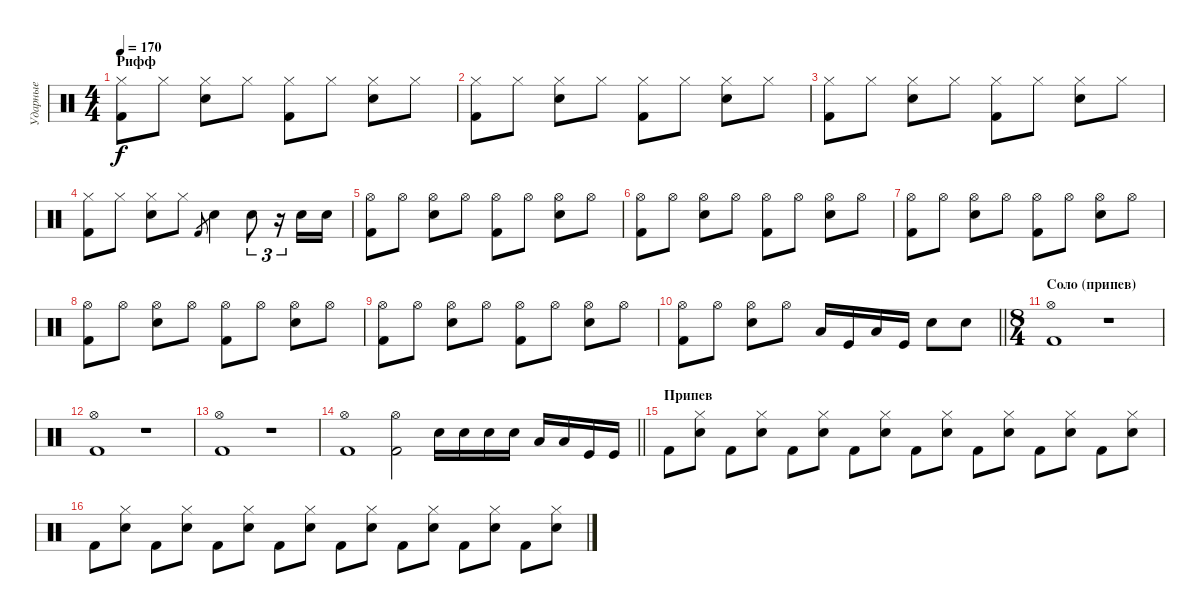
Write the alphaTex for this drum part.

\track ("Ударные" "Ударные") {instrument percussion}
\staff {score}
\articulation defaults
\ts (4 4)
\section ("" "Рифф")
\tempo 170
\clef neutral
\ks c
("Hi-Hat (closed)" "Kick (hit) 2").8{dy f} "Hi-Hat (closed)".8 ("Hi-Hat (closed)" "Electric Snare (hit)").8 "Hi-Hat (closed)".8 ("Hi-Hat (closed)" "Kick (hit) 2").8 "Hi-Hat (closed)".8 ("Hi-Hat (closed)" "Electric Snare (hit)").8 "Hi-Hat (closed)".8 |
("Hi-Hat (closed)" "Kick (hit) 2").8 "Hi-Hat (closed)".8 ("Hi-Hat (closed)" "Electric Snare (hit)").8 "Hi-Hat (closed)".8 ("Hi-Hat (closed)" "Kick (hit) 2").8 "Hi-Hat (closed)".8 ("Hi-Hat (closed)" "Electric Snare (hit)").8 "Hi-Hat (closed)".8 |
("Hi-Hat (closed)" "Kick (hit) 2").8 "Hi-Hat (closed)".8 ("Hi-Hat (closed)" "Electric Snare (hit)").8 "Hi-Hat (closed)".8 ("Hi-Hat (closed)" "Kick (hit) 2").8 "Hi-Hat (closed)".8 ("Hi-Hat (closed)" "Electric Snare (hit)").8 "Hi-Hat (closed)".8 |
("Hi-Hat (closed)" "Kick (hit) 2").8 "Hi-Hat (closed)".8 ("Hi-Hat (closed)" "Electric Snare (hit)").8 "Hi-Hat (closed)".8 "Kick (hit) 2".8{gr} "Electric Snare (hit)".4 "Electric Snare (hit)".8{tu (3 2)} r.16{tu (3 2)} "Electric Snare (hit)".16 "Electric Snare (hit)".16 |
("Hi-Hat (open)" "Kick (hit) 2").8 "Hi-Hat (open)".8 ("Hi-Hat (open)" "Electric Snare (hit)").8 "Hi-Hat (open)".8 ("Hi-Hat (open)" "Kick (hit) 2").8 "Hi-Hat (open)".8 ("Hi-Hat (open)" "Electric Snare (hit)").8 "Hi-Hat (open)".8 |
("Hi-Hat (open)" "Kick (hit) 2").8 "Hi-Hat (open)".8 ("Hi-Hat (open)" "Electric Snare (hit)").8 "Hi-Hat (open)".8 ("Hi-Hat (open)" "Kick (hit) 2").8 "Hi-Hat (open)".8 ("Hi-Hat (open)" "Electric Snare (hit)").8 "Hi-Hat (open)".8 |
("Hi-Hat (open)" "Kick (hit) 2").8 "Hi-Hat (open)".8 ("Hi-Hat (open)" "Electric Snare (hit)").8 "Hi-Hat (open)".8 ("Hi-Hat (open)" "Kick (hit) 2").8 "Hi-Hat (open)".8 ("Hi-Hat (open)" "Electric Snare (hit)").8 "Hi-Hat (open)".8 |
("Hi-Hat (open)" "Kick (hit) 2").8 "Hi-Hat (open)".8 ("Hi-Hat (open)" "Electric Snare (hit)").8 "Hi-Hat (open)".8 ("Hi-Hat (open)" "Kick (hit) 2").8 "Hi-Hat (open)".8 ("Hi-Hat (open)" "Electric Snare (hit)").8 "Hi-Hat (open)".8 |
("Hi-Hat (open)" "Kick (hit) 2").8 "Hi-Hat (open)".8 ("Hi-Hat (open)" "Electric Snare (hit)").8 "Hi-Hat (open)".8 ("Hi-Hat (open)" "Kick (hit) 2").8 "Hi-Hat (open)".8 ("Hi-Hat (open)" "Electric Snare (hit)").8 "Hi-Hat (open)".8 |
\barLineRight lightlight
("Hi-Hat (open)" "Kick (hit) 2").8 "Hi-Hat (open)".8 ("Hi-Hat (open)" "Electric Snare (hit)").8 "Hi-Hat (open)".8 "Low Tom (hit)".16 "Kick (hit)".16 "Low Tom (hit)".16 "Kick (hit)".16 "Electric Snare (hit)".8 "Electric Snare (hit)".8 |
\ts (8 4)
\section ("" "Соло (припев)")
("Hi-Hat (open)" "Kick (hit) 2").1 r.1 |
("Hi-Hat (open)" "Kick (hit) 2").1 r.1 |
("Hi-Hat (open)" "Kick (hit) 2").1 r.1 |
\barLineRight lightlight
("Hi-Hat (open)" "Kick (hit) 2").1 ("Hi-Hat (open)" "Kick (hit) 2").2 "Electric Snare (hit)".16 "Electric Snare (hit)".16 "Electric Snare (hit)".16 "Electric Snare (hit)".16 "Low Tom (hit)".16 "Low Tom (hit)".16 "Kick (hit)".16 "Kick (hit)".16 |
\section ("" "Припев")
"Kick (hit) 2".8 ("Hi-Hat (closed)" "Electric Snare (hit)").8 "Kick (hit) 2".8 ("Hi-Hat (closed)" "Electric Snare (hit)").8 "Kick (hit) 2".8 ("Hi-Hat (closed)" "Electric Snare (hit)").8 "Kick (hit) 2".8 ("Hi-Hat (closed)" "Electric Snare (hit)").8 "Kick (hit) 2".8 ("Hi-Hat (closed)" "Electric Snare (hit)").8 "Kick (hit) 2".8 ("Hi-Hat (closed)" "Electric Snare (hit)").8 "Kick (hit) 2".8 ("Hi-Hat (closed)" "Electric Snare (hit)").8 "Kick (hit) 2".8 ("Hi-Hat (closed)" "Electric Snare (hit)").8 |
"Kick (hit) 2".8 ("Hi-Hat (closed)" "Electric Snare (hit)").8 "Kick (hit) 2".8 ("Hi-Hat (closed)" "Electric Snare (hit)").8 "Kick (hit) 2".8 ("Hi-Hat (closed)" "Electric Snare (hit)").8 "Kick (hit) 2".8 ("Hi-Hat (closed)" "Electric Snare (hit)").8 "Kick (hit) 2".8 ("Hi-Hat (closed)" "Electric Snare (hit)").8 "Kick (hit) 2".8 ("Hi-Hat (closed)" "Electric Snare (hit)").8 "Kick (hit) 2".8 ("Hi-Hat (closed)" "Electric Snare (hit)").8 "Kick (hit) 2".8 ("Hi-Hat (closed)" "Electric Snare (hit)").8
